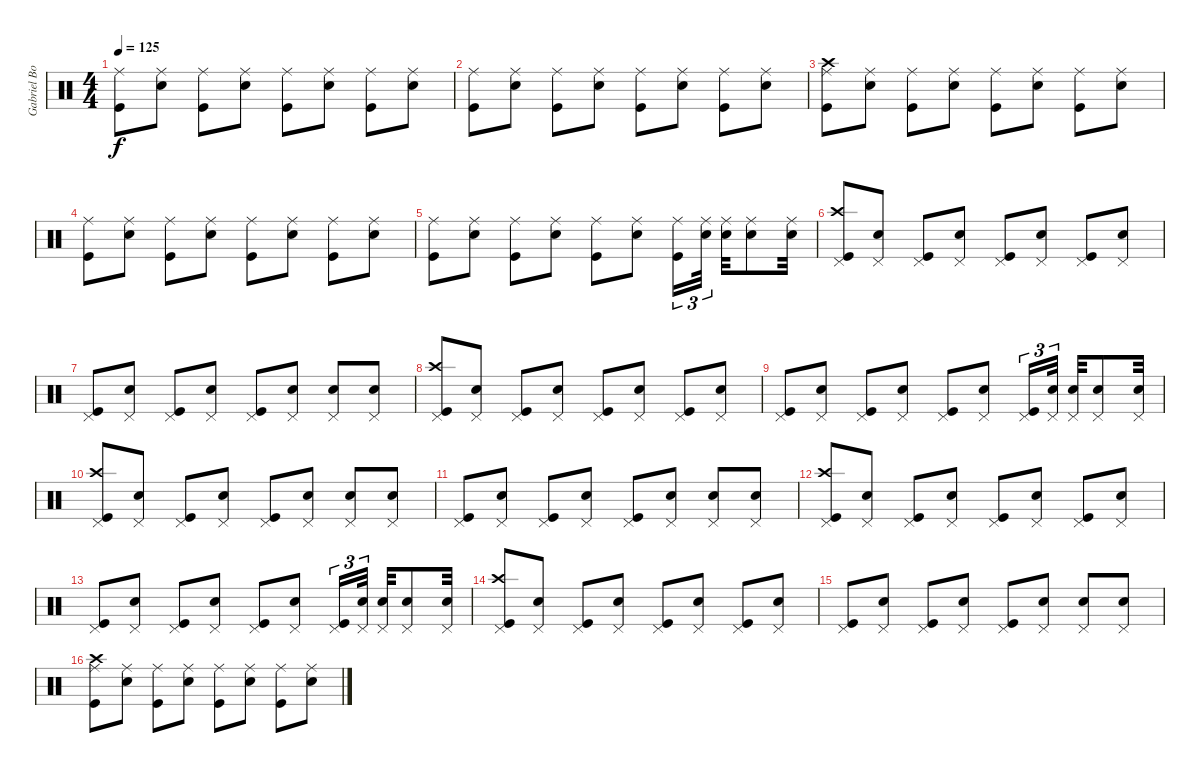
\track ("Gabriel Boizinho" "Gabriel Bo") {instrument percussion}
\staff {score}
\articulation defaults
\ts (4 4)
\tempo 125
\clef neutral
\ks c
("Ride (middle)" "Kick (hit)").8{dy f} ("Ride (middle)" "Electric Snare (hit)").8 ("Ride (middle)" "Kick (hit)").8 ("Ride (middle)" "Electric Snare (hit)").8 ("Ride (middle)" "Kick (hit)").8 ("Ride (middle)" "Electric Snare (hit)").8 ("Ride (middle)" "Kick (hit)").8 ("Ride (middle)" "Electric Snare (hit)").8 |
("Ride (middle)" "Kick (hit)").8 ("Ride (middle)" "Electric Snare (hit)").8 ("Ride (middle)" "Kick (hit)").8 ("Ride (middle)" "Electric Snare (hit)").8 ("Ride (middle)" "Kick (hit)").8 ("Ride (middle)" "Electric Snare (hit)").8 ("Ride (middle)" "Kick (hit)").8 ("Ride (middle)" "Electric Snare (hit)").8 |
("Crash high (hit)" "Ride (middle)" "Kick (hit)").8 ("Ride (middle)" "Electric Snare (hit)").8 ("Ride (middle)" "Kick (hit)").8 ("Ride (middle)" "Electric Snare (hit)").8 ("Ride (middle)" "Kick (hit)").8 ("Ride (middle)" "Electric Snare (hit)").8 ("Ride (middle)" "Kick (hit)").8 ("Ride (middle)" "Electric Snare (hit)").8 |
("Ride (middle)" "Kick (hit)").8 ("Ride (middle)" "Electric Snare (hit)").8 ("Ride (middle)" "Kick (hit)").8 ("Ride (middle)" "Electric Snare (hit)").8 ("Ride (middle)" "Kick (hit)").8 ("Ride (middle)" "Electric Snare (hit)").8 ("Ride (middle)" "Kick (hit)").8 ("Ride (middle)" "Electric Snare (hit)").8 |
("Ride (middle)" "Kick (hit)").8 ("Ride (middle)" "Electric Snare (hit)").8 ("Ride (middle)" "Kick (hit)").8 ("Ride (middle)" "Electric Snare (hit)").8 ("Ride (middle)" "Kick (hit)").8 ("Ride (middle)" "Electric Snare (hit)").8 ("Ride (middle)" "Kick (hit)").16{tu (3 2)} ("Ride (middle)" "Electric Snare (hit)").32{tu (3 2)} ("Ride (middle)" "Electric Snare (hit)").32 ("Ride (middle)" "Electric Snare (hit)").8 ("Ride (middle)" "Electric Snare (hit)").32 |
("Crash high (hit)" "Pedal Hi-Hat (hit)" "Kick (hit)").8 ("Pedal Hi-Hat (hit)" "Electric Snare (hit)").8 ("Pedal Hi-Hat (hit)" "Kick (hit)").8 ("Pedal Hi-Hat (hit)" "Electric Snare (hit)").8 ("Pedal Hi-Hat (hit)" "Kick (hit)").8 ("Pedal Hi-Hat (hit)" "Electric Snare (hit)").8 ("Pedal Hi-Hat (hit)" "Kick (hit)").8 ("Pedal Hi-Hat (hit)" "Electric Snare (hit)").8 |
("Pedal Hi-Hat (hit)" "Kick (hit)").8 ("Pedal Hi-Hat (hit)" "Electric Snare (hit)").8 ("Pedal Hi-Hat (hit)" "Kick (hit)").8 ("Pedal Hi-Hat (hit)" "Electric Snare (hit)").8 ("Pedal Hi-Hat (hit)" "Kick (hit)").8 ("Pedal Hi-Hat (hit)" "Electric Snare (hit)").8 ("Pedal Hi-Hat (hit)" "Electric Snare (hit)").8 ("Pedal Hi-Hat (hit)" "Electric Snare (hit)").8 |
("Crash high (hit)" "Pedal Hi-Hat (hit)" "Kick (hit)").8 ("Pedal Hi-Hat (hit)" "Electric Snare (hit)").8 ("Pedal Hi-Hat (hit)" "Kick (hit)").8 ("Pedal Hi-Hat (hit)" "Electric Snare (hit)").8 ("Pedal Hi-Hat (hit)" "Kick (hit)").8 ("Pedal Hi-Hat (hit)" "Electric Snare (hit)").8 ("Pedal Hi-Hat (hit)" "Kick (hit)").8 ("Pedal Hi-Hat (hit)" "Electric Snare (hit)").8 |
("Pedal Hi-Hat (hit)" "Kick (hit)").8 ("Pedal Hi-Hat (hit)" "Electric Snare (hit)").8 ("Pedal Hi-Hat (hit)" "Kick (hit)").8 ("Pedal Hi-Hat (hit)" "Electric Snare (hit)").8 ("Pedal Hi-Hat (hit)" "Kick (hit)").8 ("Pedal Hi-Hat (hit)" "Electric Snare (hit)").8 ("Pedal Hi-Hat (hit)" "Kick (hit)").16{tu (3 2)} ("Pedal Hi-Hat (hit)" "Electric Snare (hit)").32{tu (3 2)} ("Pedal Hi-Hat (hit)" "Electric Snare (hit)").32 ("Pedal Hi-Hat (hit)" "Electric Snare (hit)").8 ("Pedal Hi-Hat (hit)" "Electric Snare (hit)").32 |
("Crash high (hit)" "Pedal Hi-Hat (hit)" "Kick (hit)").8 ("Pedal Hi-Hat (hit)" "Electric Snare (hit)").8 ("Pedal Hi-Hat (hit)" "Kick (hit)").8 ("Pedal Hi-Hat (hit)" "Electric Snare (hit)").8 ("Pedal Hi-Hat (hit)" "Kick (hit)").8 ("Pedal Hi-Hat (hit)" "Electric Snare (hit)").8 ("Pedal Hi-Hat (hit)" "Electric Snare (hit)").8 ("Pedal Hi-Hat (hit)" "Electric Snare (hit)").8 |
("Pedal Hi-Hat (hit)" "Kick (hit)").8 ("Pedal Hi-Hat (hit)" "Electric Snare (hit)").8 ("Pedal Hi-Hat (hit)" "Kick (hit)").8 ("Pedal Hi-Hat (hit)" "Electric Snare (hit)").8 ("Pedal Hi-Hat (hit)" "Kick (hit)").8 ("Pedal Hi-Hat (hit)" "Electric Snare (hit)").8 ("Pedal Hi-Hat (hit)" "Electric Snare (hit)").8 ("Pedal Hi-Hat (hit)" "Electric Snare (hit)").8 |
("Crash high (hit)" "Pedal Hi-Hat (hit)" "Kick (hit)").8 ("Pedal Hi-Hat (hit)" "Electric Snare (hit)").8 ("Pedal Hi-Hat (hit)" "Kick (hit)").8 ("Pedal Hi-Hat (hit)" "Electric Snare (hit)").8 ("Pedal Hi-Hat (hit)" "Kick (hit)").8 ("Pedal Hi-Hat (hit)" "Electric Snare (hit)").8 ("Pedal Hi-Hat (hit)" "Kick (hit)").8 ("Pedal Hi-Hat (hit)" "Electric Snare (hit)").8 |
("Pedal Hi-Hat (hit)" "Kick (hit)").8 ("Pedal Hi-Hat (hit)" "Electric Snare (hit)").8 ("Pedal Hi-Hat (hit)" "Kick (hit)").8 ("Pedal Hi-Hat (hit)" "Electric Snare (hit)").8 ("Pedal Hi-Hat (hit)" "Kick (hit)").8 ("Pedal Hi-Hat (hit)" "Electric Snare (hit)").8 ("Pedal Hi-Hat (hit)" "Kick (hit)").16{tu (3 2)} ("Pedal Hi-Hat (hit)" "Electric Snare (hit)").32{tu (3 2)} ("Pedal Hi-Hat (hit)" "Electric Snare (hit)").32 ("Pedal Hi-Hat (hit)" "Electric Snare (hit)").8 ("Pedal Hi-Hat (hit)" "Electric Snare (hit)").32 |
("Crash high (hit)" "Pedal Hi-Hat (hit)" "Kick (hit)").8 ("Pedal Hi-Hat (hit)" "Electric Snare (hit)").8 ("Pedal Hi-Hat (hit)" "Kick (hit)").8 ("Pedal Hi-Hat (hit)" "Electric Snare (hit)").8 ("Pedal Hi-Hat (hit)" "Kick (hit)").8 ("Pedal Hi-Hat (hit)" "Electric Snare (hit)").8 ("Pedal Hi-Hat (hit)" "Kick (hit)").8 ("Pedal Hi-Hat (hit)" "Electric Snare (hit)").8 |
("Pedal Hi-Hat (hit)" "Kick (hit)").8 ("Pedal Hi-Hat (hit)" "Electric Snare (hit)").8 ("Pedal Hi-Hat (hit)" "Kick (hit)").8 ("Pedal Hi-Hat (hit)" "Electric Snare (hit)").8 ("Pedal Hi-Hat (hit)" "Kick (hit)").8 ("Pedal Hi-Hat (hit)" "Electric Snare (hit)").8 ("Pedal Hi-Hat (hit)" "Electric Snare (hit)").8 ("Pedal Hi-Hat (hit)" "Electric Snare (hit)").8 |
("Crash high (hit)" "Ride (middle)" "Kick (hit)").8 ("Ride (middle)" "Electric Snare (hit)").8 ("Ride (middle)" "Kick (hit)").8 ("Ride (middle)" "Electric Snare (hit)").8 ("Ride (middle)" "Kick (hit)").8 ("Ride (middle)" "Electric Snare (hit)").8 ("Ride (middle)" "Kick (hit)").8 ("Ride (middle)" "Electric Snare (hit)").8
